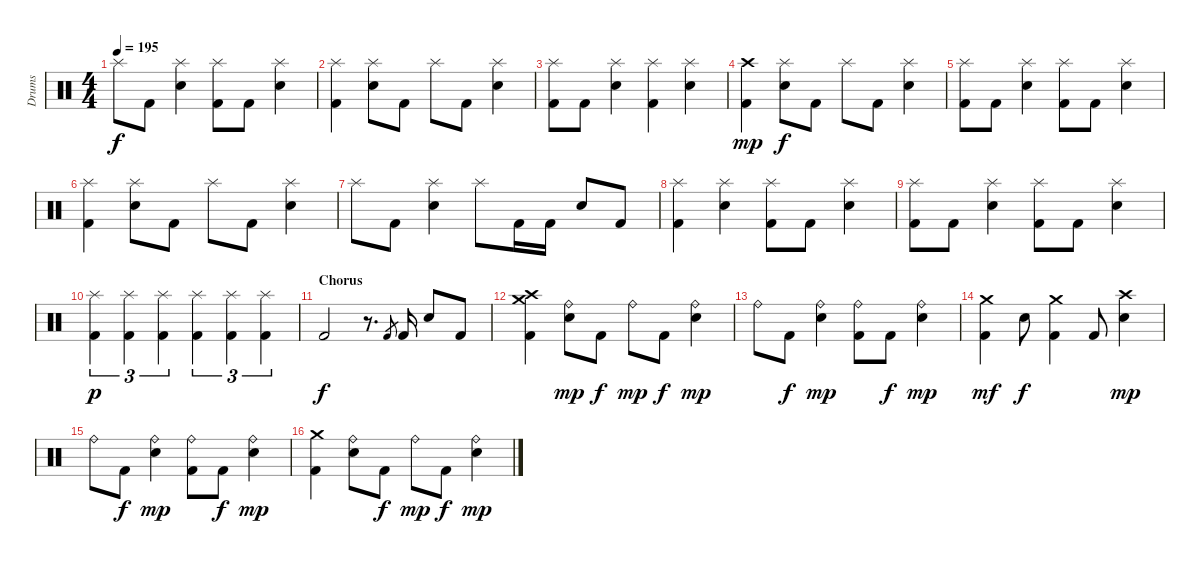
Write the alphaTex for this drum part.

\track ("Drums" "Drums") {instrument percussion}
\staff {score}
\articulation defaults
\ts (4 4)
\tempo 195
\clef neutral
\ks c "Splash (hit)".8{dy f} "Kick (hit) 2".8
("Splash (hit)" "Electric Snare (hit)").4 ("Splash (hit)" "Kick (hit) 2").8 "Kick (hit) 2".8 ("Splash (hit)" "Electric Snare (hit)").4 |
("Splash (hit)" "Kick (hit) 2").4 ("Splash (hit)" "Electric Snare (hit)").8 "Kick (hit) 2".8 "Splash (hit)".8 "Kick (hit) 2".8 ("Splash (hit)" "Electric Snare (hit)").4 |
("Splash (hit)" "Kick (hit) 2").8 "Kick (hit) 2".8 ("Splash (hit)" "Electric Snare (hit)").4 ("Splash (hit)" "Kick (hit) 2").4 ("Splash (hit)" "Electric Snare (hit)").4 |
("Crash high (hit)" "Kick (hit) 2").4{dy mp} ("Splash (hit)" "Electric Snare (hit)").8{dy f} "Kick (hit) 2".8 "Splash (hit)".8 "Kick (hit) 2".8 ("Splash (hit)" "Electric Snare (hit)").4 |
("Splash (hit)" "Kick (hit) 2").8 "Kick (hit) 2".8 ("Splash (hit)" "Electric Snare (hit)").4 ("Splash (hit)" "Kick (hit) 2").8 "Kick (hit) 2".8 ("Splash (hit)" "Electric Snare (hit)").4 |
("Splash (hit)" "Kick (hit) 2").4 ("Splash (hit)" "Electric Snare (hit)").8 "Kick (hit) 2".8 "Splash (hit)".8 "Kick (hit) 2".8 ("Splash (hit)" "Electric Snare (hit)").4 |
"Splash (hit)".8 "Kick (hit) 2".8 ("Splash (hit)" "Electric Snare (hit)").4 "Splash (hit)".8 "Kick (hit) 2".16 "Kick (hit) 2".16 "Electric Snare (hit)".8 "Kick (hit) 2".8 |
("Splash (hit)" "Kick (hit) 2").4 ("Splash (hit)" "Electric Snare (hit)").4 ("Splash (hit)" "Kick (hit) 2").8 "Kick (hit) 2".8 ("Splash (hit)" "Electric Snare (hit)").4 |
("Splash (hit)" "Kick (hit) 2").8 "Kick (hit) 2".8 ("Splash (hit)" "Electric Snare (hit)").4 ("Splash (hit)" "Kick (hit) 2").8 "Kick (hit) 2".8 ("Splash (hit)" "Electric Snare (hit)").4 |
("Splash (hit)" "Kick (hit) 2").4{tu (3 2) dy p} ("Splash (hit)" "Kick (hit) 2").4{tu (3 2)} ("Splash (hit)" "Kick (hit) 2").4{tu (3 2)} ("Splash (hit)" "Kick (hit) 2").4{tu (3 2)} ("Splash (hit)" "Kick (hit) 2").4{tu (3 2)} ("Splash (hit)" "Kick (hit) 2").4{tu (3 2)} |
\section ("" "Chorus")
"Kick (hit) 2".2{dy f} r.8{d} "Kick (hit) 2".8{gr} "Kick (hit) 2".16 "Electric Snare (hit)".8 "Kick (hit) 2".8 |
("Crash medium (hit)" "Crash high (hit)" "Kick (hit) 2").4 ("Ride (bell)" "Electric Snare (hit)").8{dy mp} "Kick (hit) 2".8{dy f} "Ride (bell)".8{dy mp} "Kick (hit) 2".8{dy f} ("Ride (bell)" "Electric Snare (hit)").4{dy mp} |
"Ride (bell)".8 "Kick (hit) 2".8{dy f} ("Ride (bell)" "Electric Snare (hit)").4{dy mp} ("Ride (bell)" "Kick (hit) 2").8 "Kick (hit) 2".8{dy f} ("Ride (bell)" "Electric Snare (hit)").4{dy mp} |
("Crash medium (hit)" "Kick (hit) 2").4{dy mf} "Electric Snare (hit)".8{dy f} ("Crash medium (hit)" "Kick (hit) 2").4 "Kick (hit) 2".8 ("Crash high (hit)" "Electric Snare (hit)").4{dy mp} |
"Ride (bell)".8 "Kick (hit) 2".8{dy f} ("Ride (bell)" "Electric Snare (hit)").4{dy mp} ("Ride (bell)" "Kick (hit) 2").8 "Kick (hit) 2".8{dy f} ("Ride (bell)" "Electric Snare (hit)").4{dy mp} |
("Crash medium (hit)" "Kick (hit) 2").4 ("Ride (bell)" "Electric Snare (hit)").8 "Kick (hit) 2".8{dy f} "Ride (bell)".8{dy mp} "Kick (hit) 2".8{dy f} ("Ride (bell)" "Electric Snare (hit)").4{dy mp}
